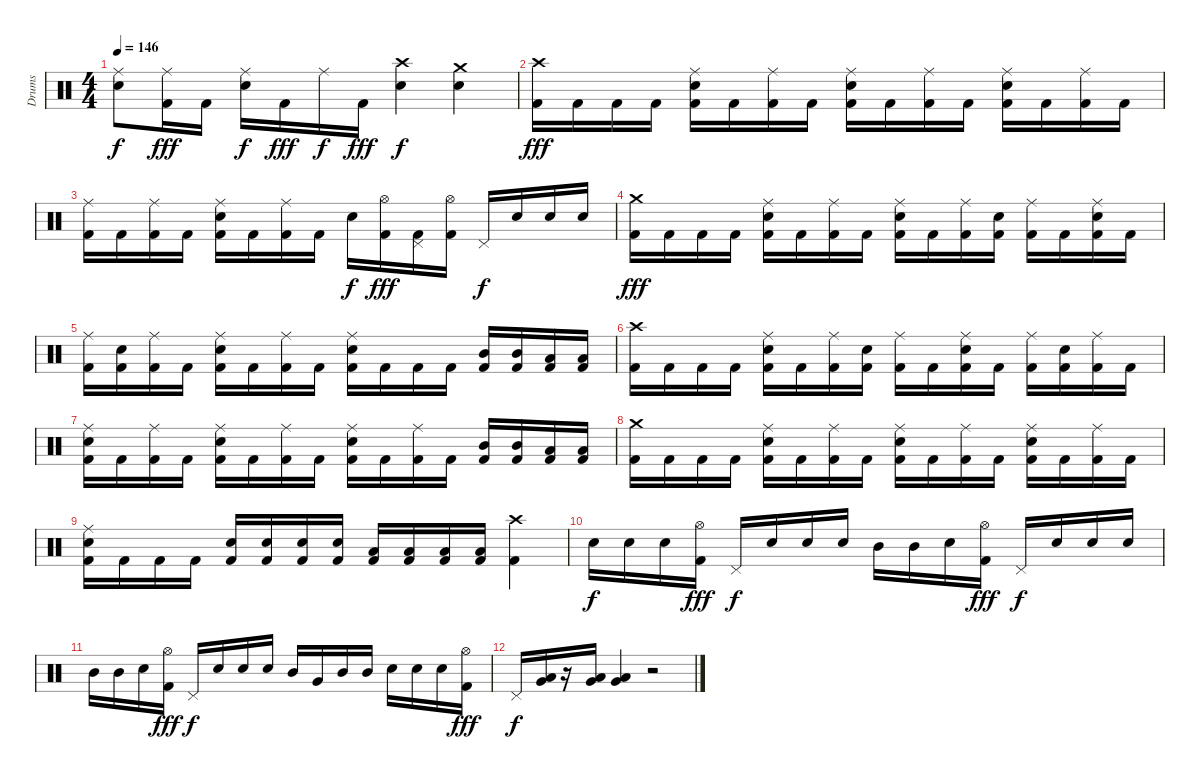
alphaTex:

\track ("Drums" "Drums") {instrument percussion}
\staff {score}
\articulation defaults
\ts (4 4)
\tempo 146
\clef neutral
\ks c
("Ride (middle)" "Snare (hit) 2").8{dy f} ("Ride (middle)" "Kick (hit) 2").16{dy fff} "Kick (hit) 2".16 ("Ride (middle)" "Snare (hit) 2").16{dy f} "Kick (hit) 2".16{dy fff} "Ride (middle)".16{dy f} "Kick (hit) 2".16{dy fff} ("Crash high (hit)" "Snare (hit) 2").4{dy f} ("Crash medium (hit)" "Snare (hit) 2").4 |
("Crash high (hit)" "Kick (hit) 2").16{dy fff} "Kick (hit) 2".16 "Kick (hit) 2".16 "Kick (hit) 2".16 ("Ride (middle)" "Snare (hit) 2" "Kick (hit) 2").16 "Kick (hit) 2".16 ("Ride (middle)" "Kick (hit) 2").16 "Kick (hit) 2".16 ("Ride (middle)" "Snare (hit) 2" "Kick (hit) 2").16 "Kick (hit) 2".16 ("Ride (middle)" "Kick (hit) 2").16 "Kick (hit) 2".16 ("Ride (middle)" "Snare (hit) 2" "Kick (hit) 2").16 "Kick (hit) 2".16 ("Ride (middle)" "Kick (hit) 2").16 "Kick (hit) 2".16 |
("Ride (middle)" "Kick (hit) 2").16 "Kick (hit) 2".16 ("Ride (middle)" "Kick (hit) 2").16 "Kick (hit) 2".16 ("Ride (middle)" "Snare (hit) 2" "Kick (hit) 2").16 "Kick (hit) 2".16 ("Ride (middle)" "Kick (hit) 2").16 "Kick (hit) 2".16 "Snare (hit) 2".16{dy f} ("Hi-Hat (open)" "Kick (hit) 2").16{dy fff} ("Pedal Hi-Hat (hit)" "Kick (hit) 2").16 ("Hi-Hat (open)" "Kick (hit) 2").16 "Pedal Hi-Hat (hit)".16{dy f} "Snare (hit) 2".16 "Snare (hit) 2".16 "Snare (hit) 2".16 |
("Crash medium (hit)" "Kick (hit) 2").16{dy fff} "Kick (hit) 2".16 "Kick (hit) 2".16 "Kick (hit) 2".16 ("Ride (middle)" "Snare (hit) 2" "Kick (hit) 2").16 "Kick (hit) 2".16 ("Ride (middle)" "Kick (hit) 2").16 "Kick (hit) 2".16 ("Ride (middle)" "Snare (hit) 2" "Kick (hit) 2").16 "Kick (hit) 2".16 ("Ride (middle)" "Kick (hit) 2").16 ("Snare (hit) 2" "Kick (hit) 2").16 ("Ride (middle)" "Kick (hit) 2").16 "Kick (hit) 2".16 ("Ride (middle)" "Snare (hit) 2" "Kick (hit) 2").16 "Kick (hit) 2".16 |
("Ride (middle)" "Kick (hit) 2").16 ("Snare (hit) 2" "Kick (hit) 2").16 ("Ride (middle)" "Kick (hit) 2").16 "Kick (hit) 2".16 ("Ride (middle)" "Snare (hit) 2" "Kick (hit) 2").16 "Kick (hit) 2".16 ("Ride (middle)" "Kick (hit) 2").16 "Kick (hit) 2".16 ("Ride (middle)" "Snare (hit) 2" "Kick (hit) 2").16 "Kick (hit) 2".16 "Kick (hit) 2".16 "Kick (hit) 2".16 ("Mid Tom (hit)" "Kick (hit) 2").16 ("Mid Tom (hit)" "Kick (hit) 2").16 ("Low Tom (hit)" "Kick (hit) 2").16 ("Low Tom (hit)" "Kick (hit) 2").16 |
("Crash high (hit)" "Kick (hit) 2").16 "Kick (hit) 2".16 "Kick (hit) 2".16 "Kick (hit) 2".16 ("Ride (middle)" "Snare (hit) 2" "Kick (hit) 2").16 "Kick (hit) 2".16 ("Ride (middle)" "Kick (hit) 2").16 ("Snare (hit) 2" "Kick (hit) 2").16 ("Ride (middle)" "Kick (hit) 2").16 "Kick (hit) 2".16 ("Ride (middle)" "Snare (hit) 2" "Kick (hit) 2").16 "Kick (hit) 2".16 ("Ride (middle)" "Kick (hit) 2").16 ("Snare (hit) 2" "Kick (hit) 2").16 ("Ride (middle)" "Kick (hit) 2").16 "Kick (hit) 2".16 |
("Ride (middle)" "Snare (hit) 2" "Kick (hit) 2").16 "Kick (hit) 2".16 ("Ride (middle)" "Kick (hit) 2").16 "Kick (hit) 2".16 ("Ride (middle)" "Snare (hit) 2" "Kick (hit) 2").16 "Kick (hit) 2".16 ("Ride (middle)" "Kick (hit) 2").16 "Kick (hit) 2".16 ("Ride (middle)" "Snare (hit) 2" "Kick (hit) 2").16 "Kick (hit) 2".16 ("Ride (middle)" "Kick (hit) 2").16 "Kick (hit) 2".16 ("Mid Tom (hit)" "Kick (hit) 2").16 ("Mid Tom (hit)" "Kick (hit) 2").16 ("Low Tom (hit)" "Kick (hit) 2").16 ("Low Tom (hit)" "Kick (hit) 2").16 |
("Crash medium (hit)" "Kick (hit) 2").16 "Kick (hit) 2".16 "Kick (hit) 2".16 "Kick (hit) 2".16 ("Ride (middle)" "Snare (hit) 2" "Kick (hit) 2").16 "Kick (hit) 2".16 ("Ride (middle)" "Kick (hit) 2").16 "Kick (hit) 2".16 ("Ride (middle)" "Snare (hit) 2" "Kick (hit) 2").16 "Kick (hit) 2".16 ("Ride (middle)" "Kick (hit) 2").16 "Kick (hit) 2".16 ("Ride (middle)" "Snare (hit) 2" "Kick (hit) 2").16 "Kick (hit) 2".16 ("Ride (middle)" "Kick (hit) 2").16 "Kick (hit) 2".16 |
("Ride (middle)" "Snare (hit) 2" "Kick (hit) 2").16 "Kick (hit) 2".16 "Kick (hit) 2".16 "Kick (hit) 2".16 ("Snare (hit) 2" "Kick (hit) 2").16 ("Snare (hit) 2" "Kick (hit) 2").16 ("Snare (hit) 2" "Kick (hit) 2").16 ("Snare (hit) 2" "Kick (hit) 2").16 ("Low Floor Tom (hit)" "Kick (hit) 2").16 ("Low Floor Tom (hit)" "Kick (hit) 2").16 ("Low Floor Tom (hit)" "Kick (hit) 2").16 ("Low Floor Tom (hit)" "Kick (hit) 2").16 ("Crash high (hit)" "Kick (hit) 2").4 |
"Snare (hit) 2".16{dy f} "Snare (hit) 2".16 "Snare (hit) 2".16 ("Hi-Hat (open)" "Kick (hit) 2").16{dy fff} "Pedal Hi-Hat (hit)".16{dy f} "Snare (hit) 2".16 "Snare (hit) 2".16 "Snare (hit) 2".16 "Mid Tom (hit)".16 "Mid Tom (hit)".16 "Snare (hit) 2".16 ("Hi-Hat (open)" "Kick (hit) 2").16{dy fff} "Pedal Hi-Hat (hit)".16{dy f} "Snare (hit) 2".16 "Snare (hit) 2".16 "Snare (hit) 2".16 |
"Mid Tom (hit)".16 "Mid Tom (hit)".16 "Snare (hit) 2".16 ("Hi-Hat (open)" "Kick (hit) 2").16{dy fff} "Pedal Hi-Hat (hit)".16{dy f} "Snare (hit) 2".16 "Snare (hit) 2".16 "Snare (hit) 2".16 "Mid Tom (hit)".16 "Very Low Tom (hit)".16 "Mid Tom (hit)".16 "Mid Tom (hit)".16 "Snare (hit) 2".16 "Snare (hit) 2".16 "Snare (hit) 2".16 ("Hi-Hat (open)" "Kick (hit) 2").16{dy fff} |
"Pedal Hi-Hat (hit)".16{dy f} ("Very Low Tom (hit)" "Low Floor Tom (hit)").16 r.16 ("Very Low Tom (hit)" "Low Floor Tom (hit)").16 ("Very Low Tom (hit)" "Low Floor Tom (hit)").4 r.2
